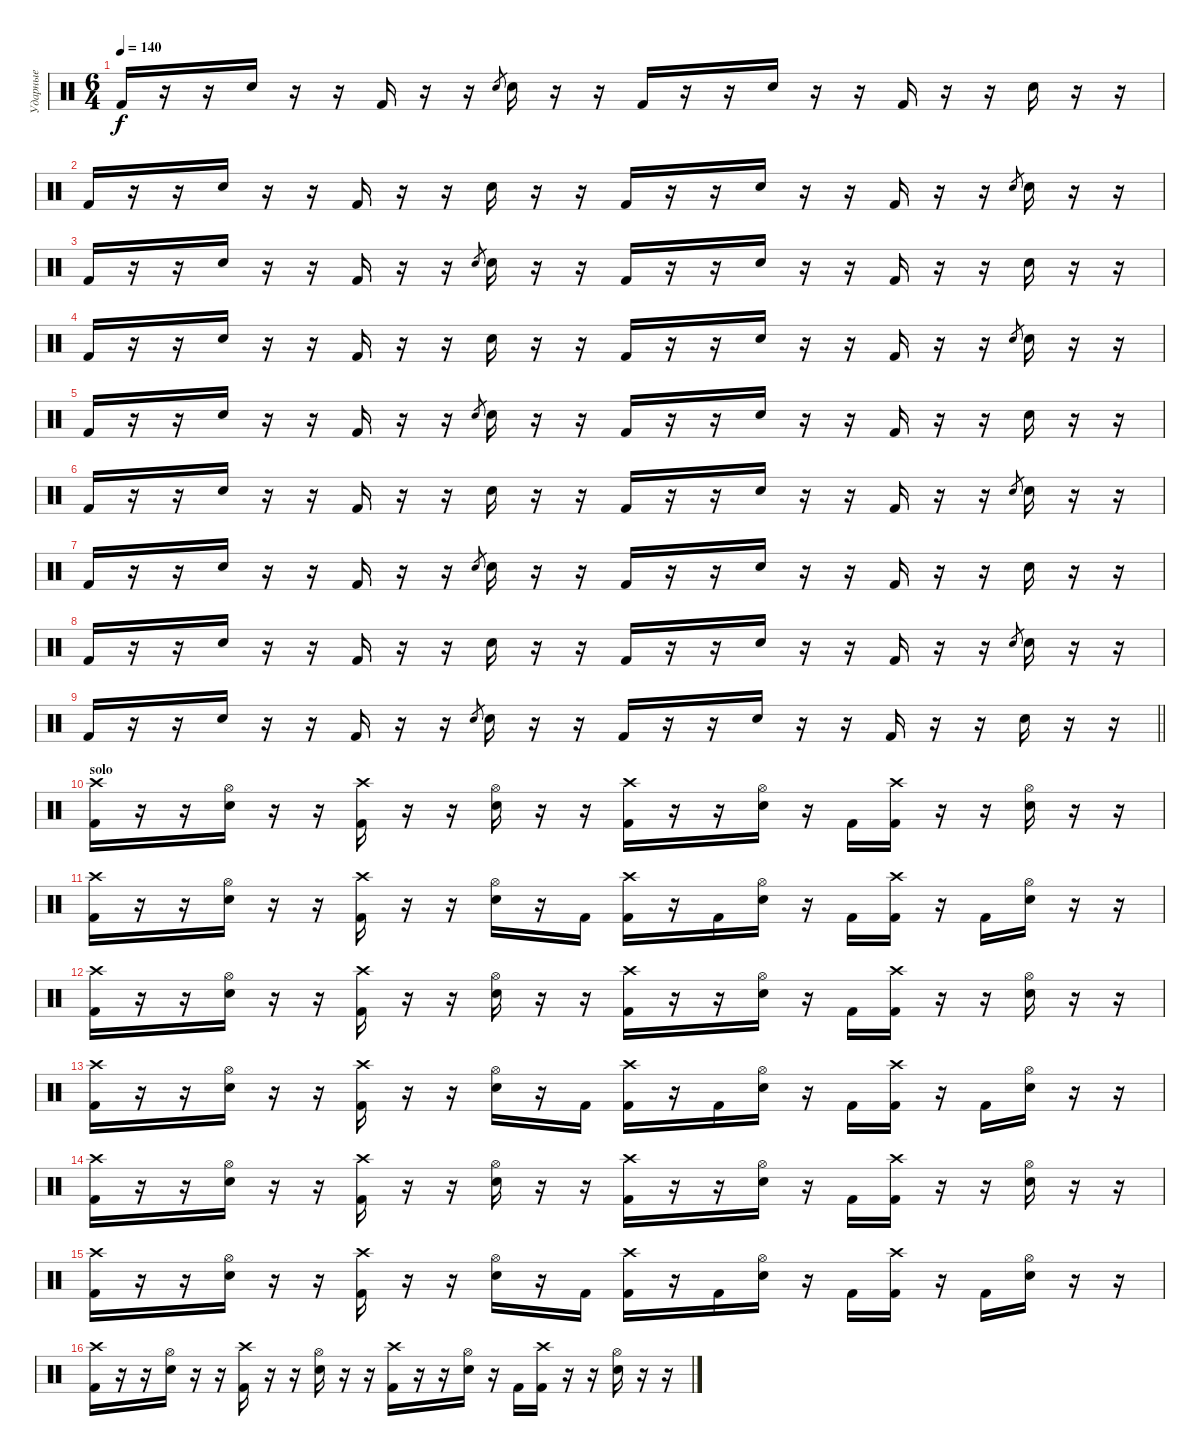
\track ("Ударные" "Ударные") {instrument percussion}
\staff {score}
\articulation defaults
\ts (6 4)
\tempo 140
\clef neutral
\ks c "Kick (hit) 2".16{dy f}
r.16 r.16 "Snare (hit) 2".16 r.16 r.16 "Kick (hit) 2".16 r.16 r.16 "Snare (hit) 2".8{gr} "Snare (hit) 2".16 r.16 r.16 "Kick (hit) 2".16 r.16 r.16 "Snare (hit) 2".16 r.16 r.16 "Kick (hit) 2".16 r.16 r.16 "Snare (hit) 2".16 r.16 r.16 |
"Kick (hit) 2".16 r.16 r.16 "Snare (hit) 2".16 r.16 r.16 "Kick (hit) 2".16 r.16 r.16 "Snare (hit) 2".16 r.16 r.16 "Kick (hit) 2".16 r.16 r.16 "Snare (hit) 2".16 r.16 r.16 "Kick (hit) 2".16 r.16 r.16 "Snare (hit) 2".8{gr} "Snare (hit) 2".16 r.16 r.16 |
"Kick (hit) 2".16 r.16 r.16 "Snare (hit) 2".16 r.16 r.16 "Kick (hit) 2".16 r.16 r.16 "Snare (hit) 2".8{gr} "Snare (hit) 2".16 r.16 r.16 "Kick (hit) 2".16 r.16 r.16 "Snare (hit) 2".16 r.16 r.16 "Kick (hit) 2".16 r.16 r.16 "Snare (hit) 2".16 r.16 r.16 |
"Kick (hit) 2".16 r.16 r.16 "Snare (hit) 2".16 r.16 r.16 "Kick (hit) 2".16 r.16 r.16 "Snare (hit) 2".16 r.16 r.16 "Kick (hit) 2".16 r.16 r.16 "Snare (hit) 2".16 r.16 r.16 "Kick (hit) 2".16 r.16 r.16 "Snare (hit) 2".8{gr} "Snare (hit) 2".16 r.16 r.16 |
"Kick (hit) 2".16 r.16 r.16 "Snare (hit) 2".16 r.16 r.16 "Kick (hit) 2".16 r.16 r.16 "Snare (hit) 2".8{gr} "Snare (hit) 2".16 r.16 r.16 "Kick (hit) 2".16 r.16 r.16 "Snare (hit) 2".16 r.16 r.16 "Kick (hit) 2".16 r.16 r.16 "Snare (hit) 2".16 r.16 r.16 |
"Kick (hit) 2".16 r.16 r.16 "Snare (hit) 2".16 r.16 r.16 "Kick (hit) 2".16 r.16 r.16 "Snare (hit) 2".16 r.16 r.16 "Kick (hit) 2".16 r.16 r.16 "Snare (hit) 2".16 r.16 r.16 "Kick (hit) 2".16 r.16 r.16 "Snare (hit) 2".8{gr} "Snare (hit) 2".16 r.16 r.16 |
"Kick (hit) 2".16 r.16 r.16 "Snare (hit) 2".16 r.16 r.16 "Kick (hit) 2".16 r.16 r.16 "Snare (hit) 2".8{gr} "Snare (hit) 2".16 r.16 r.16 "Kick (hit) 2".16 r.16 r.16 "Snare (hit) 2".16 r.16 r.16 "Kick (hit) 2".16 r.16 r.16 "Snare (hit) 2".16 r.16 r.16 |
"Kick (hit) 2".16 r.16 r.16 "Snare (hit) 2".16 r.16 r.16 "Kick (hit) 2".16 r.16 r.16 "Snare (hit) 2".16 r.16 r.16 "Kick (hit) 2".16 r.16 r.16 "Snare (hit) 2".16 r.16 r.16 "Kick (hit) 2".16 r.16 r.16 "Snare (hit) 2".8{gr} "Snare (hit) 2".16 r.16 r.16 |
\barLineRight lightlight "Kick (hit) 2".16
r.16 r.16 "Snare (hit) 2".16 r.16 r.16 "Kick (hit) 2".16 r.16 r.16 "Snare (hit) 2".8{gr} "Snare (hit) 2".16 r.16 r.16 "Kick (hit) 2".16 r.16 r.16 "Snare (hit) 2".16 r.16 r.16 "Kick (hit) 2".16 r.16 r.16 "Snare (hit) 2".16 r.16 r.16 |
\section ("" "solo")
("Crash high (hit)" "Kick (hit) 2").16 r.16 r.16 ("Hi-Hat (open)" "Snare (hit) 2").16 r.16 r.16 ("Crash high (hit)" "Kick (hit) 2").16 r.16 r.16 ("Hi-Hat (open)" "Snare (hit) 2").16 r.16 r.16 ("Crash high (hit)" "Kick (hit) 2").16 r.16 r.16 ("Hi-Hat (open)" "Snare (hit) 2").16 r.16 "Kick (hit) 2".16 ("Crash high (hit)" "Kick (hit) 2").16 r.16 r.16 ("Hi-Hat (open)" "Snare (hit) 2").16 r.16 r.16 |
("Crash high (hit)" "Kick (hit) 2").16 r.16 r.16 ("Hi-Hat (open)" "Snare (hit) 2").16 r.16 r.16 ("Crash high (hit)" "Kick (hit) 2").16 r.16 r.16 ("Hi-Hat (open)" "Snare (hit) 2").16 r.16 "Kick (hit) 2".16 ("Crash high (hit)" "Kick (hit) 2").16 r.16 "Kick (hit) 2".16 ("Hi-Hat (open)" "Snare (hit) 2").16 r.16 "Kick (hit) 2".16 ("Crash high (hit)" "Kick (hit) 2").16 r.16 "Kick (hit) 2".16 ("Hi-Hat (open)" "Snare (hit) 2").16 r.16 r.16 |
("Crash high (hit)" "Kick (hit) 2").16 r.16 r.16 ("Hi-Hat (open)" "Snare (hit) 2").16 r.16 r.16 ("Crash high (hit)" "Kick (hit) 2").16 r.16 r.16 ("Hi-Hat (open)" "Snare (hit) 2").16 r.16 r.16 ("Crash high (hit)" "Kick (hit) 2").16 r.16 r.16 ("Hi-Hat (open)" "Snare (hit) 2").16 r.16 "Kick (hit) 2".16 ("Crash high (hit)" "Kick (hit) 2").16 r.16 r.16 ("Hi-Hat (open)" "Snare (hit) 2").16 r.16 r.16 |
("Crash high (hit)" "Kick (hit) 2").16 r.16 r.16 ("Hi-Hat (open)" "Snare (hit) 2").16 r.16 r.16 ("Crash high (hit)" "Kick (hit) 2").16 r.16 r.16 ("Hi-Hat (open)" "Snare (hit) 2").16 r.16 "Kick (hit) 2".16 ("Crash high (hit)" "Kick (hit) 2").16 r.16 "Kick (hit) 2".16 ("Hi-Hat (open)" "Snare (hit) 2").16 r.16 "Kick (hit) 2".16 ("Crash high (hit)" "Kick (hit) 2").16 r.16 "Kick (hit) 2".16 ("Hi-Hat (open)" "Snare (hit) 2").16 r.16 r.16 |
("Crash high (hit)" "Kick (hit) 2").16 r.16 r.16 ("Hi-Hat (open)" "Snare (hit) 2").16 r.16 r.16 ("Crash high (hit)" "Kick (hit) 2").16 r.16 r.16 ("Hi-Hat (open)" "Snare (hit) 2").16 r.16 r.16 ("Crash high (hit)" "Kick (hit) 2").16 r.16 r.16 ("Hi-Hat (open)" "Snare (hit) 2").16 r.16 "Kick (hit) 2".16 ("Crash high (hit)" "Kick (hit) 2").16 r.16 r.16 ("Hi-Hat (open)" "Snare (hit) 2").16 r.16 r.16 |
("Crash high (hit)" "Kick (hit) 2").16 r.16 r.16 ("Hi-Hat (open)" "Snare (hit) 2").16 r.16 r.16 ("Crash high (hit)" "Kick (hit) 2").16 r.16 r.16 ("Hi-Hat (open)" "Snare (hit) 2").16 r.16 "Kick (hit) 2".16 ("Crash high (hit)" "Kick (hit) 2").16 r.16 "Kick (hit) 2".16 ("Hi-Hat (open)" "Snare (hit) 2").16 r.16 "Kick (hit) 2".16 ("Crash high (hit)" "Kick (hit) 2").16 r.16 "Kick (hit) 2".16 ("Hi-Hat (open)" "Snare (hit) 2").16 r.16 r.16 |
("Crash high (hit)" "Kick (hit) 2").16 r.16 r.16 ("Hi-Hat (open)" "Snare (hit) 2").16 r.16 r.16 ("Crash high (hit)" "Kick (hit) 2").16 r.16 r.16 ("Hi-Hat (open)" "Snare (hit) 2").16 r.16 r.16 ("Crash high (hit)" "Kick (hit) 2").16 r.16 r.16 ("Hi-Hat (open)" "Snare (hit) 2").16 r.16 "Kick (hit) 2".16 ("Crash high (hit)" "Kick (hit) 2").16 r.16 r.16 ("Hi-Hat (open)" "Snare (hit) 2").16 r.16 r.16
